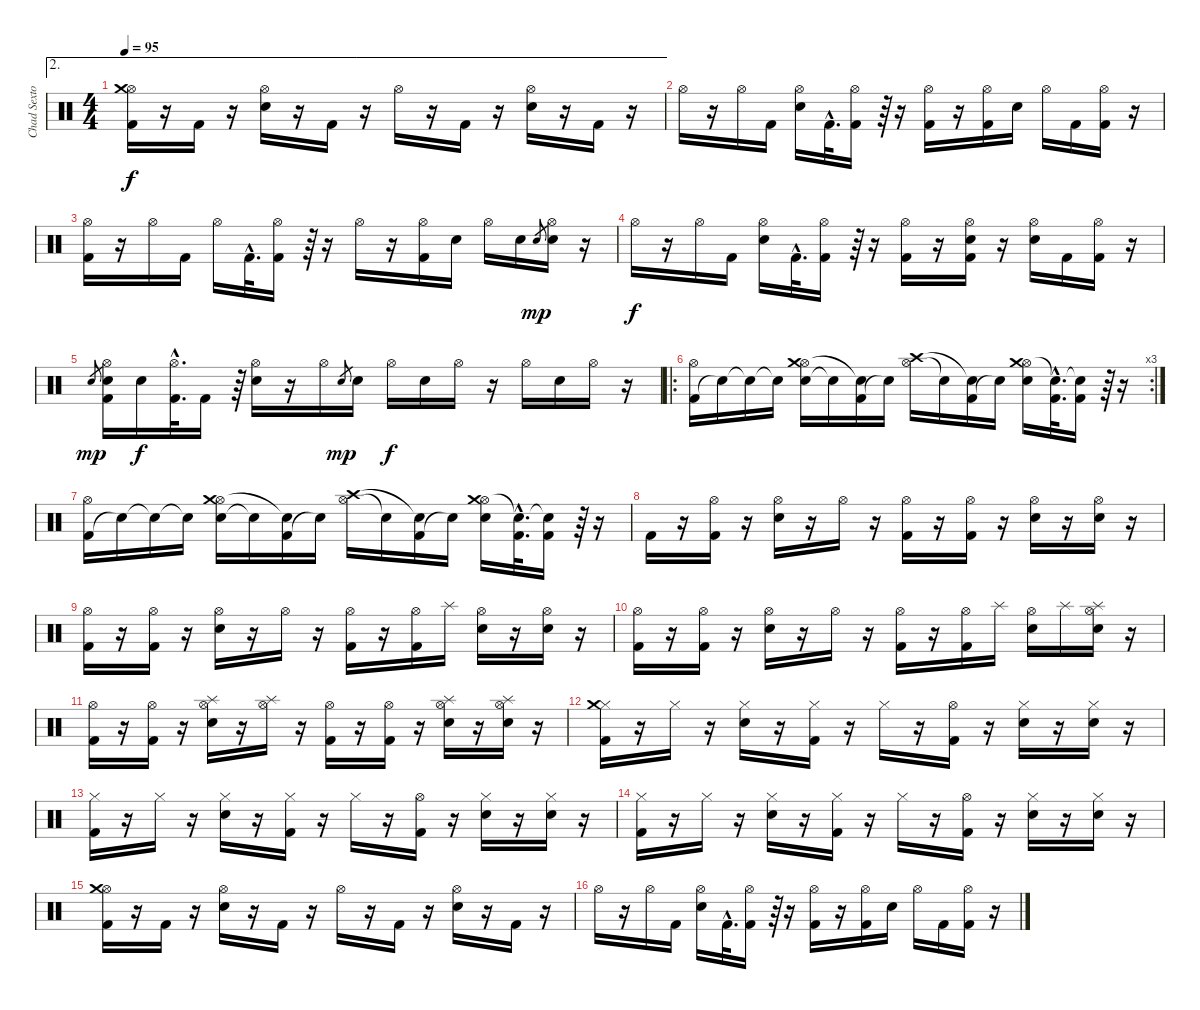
\track ("Chad Sexton" "Chad Sexto") {instrument percussion}
\staff {score}
\articulation defaults
\ae 2
\ts (4 4)
\tempo 95
\clef neutral
\ks c
("Hi-Hat (open)" "Crash medium (hit)" "Kick (hit) 2").16{dy f} r.16 "Kick (hit) 2".16 r.16 ("Hi-Hat (open)" "Electric Snare (hit)").16 r.16 "Kick (hit) 2".16 r.16 "Hi-Hat (open)".16 r.16 "Kick (hit) 2".16 r.16 ("Hi-Hat (open)" "Electric Snare (hit)").16 r.16 "Kick (hit) 2".16 r.16 |
"Hi-Hat (open)".16 r.16 "Hi-Hat (open)".16 "Kick (hit) 2".16 ("Hi-Hat (open)" "Electric Snare (hit)").16 "Kick (hit) 2"{hac}.32{d} ("Hi-Hat (open)" "Kick (hit) 2").16 r.64 r.16 ("Hi-Hat (open)" "Kick (hit) 2").16 r.16 ("Hi-Hat (open)" "Kick (hit) 2").16 "Electric Snare (hit)".16 "Hi-Hat (open)".16 "Kick (hit) 2".16 ("Hi-Hat (open)" "Kick (hit) 2").16 r.16 |
("Hi-Hat (open)" "Kick (hit) 2").16 r.16 "Hi-Hat (open)".16 "Kick (hit) 2".16 "Hi-Hat (open)".16 "Kick (hit) 2"{hac}.32{d} ("Hi-Hat (open)" "Kick (hit) 2").16 r.64 r.16 "Hi-Hat (open)".16 r.16 ("Hi-Hat (open)" "Kick (hit) 2").16 "Electric Snare (hit)".16 "Hi-Hat (open)".16 "Electric Snare (hit)".16 "Electric Snare (hit)".8{gr dy mp} ("Hi-Hat (open)" "Electric Snare (hit)").16 r.16 |
"Hi-Hat (open)".16{dy f} r.16 "Hi-Hat (open)".16 "Kick (hit) 2".16 ("Hi-Hat (open)" "Electric Snare (hit)").16 "Kick (hit) 2"{hac}.32{d} ("Hi-Hat (open)" "Kick (hit) 2").16 r.64 r.16 ("Hi-Hat (open)" "Kick (hit) 2").16 r.16 ("Hi-Hat (open)" "Electric Snare (hit)" "Kick (hit) 2").16 r.16 ("Hi-Hat (open)" "Electric Snare (hit)").16 "Kick (hit) 2".16 ("Hi-Hat (open)" "Kick (hit) 2").16 r.16 |
"Electric Snare (hit)".8{gr dy mp} ("Hi-Hat (open)" "Kick (hit) 2" "Electric Snare (hit)").16 "Electric Snare (hit)".16{dy f} ("Hi-Hat (open)"{hac} "Kick (hit) 2"{hac}).32{d} "Kick (hit) 2".16 r.64 ("Hi-Hat (open)" "Electric Snare (hit)").16 r.16 "Hi-Hat (open)".16 "Electric Snare (hit)".8{gr dy mp} "Electric Snare (hit)".16 "Hi-Hat (open)".16{dy f} "Electric Snare (hit)".16 "Hi-Hat (open)".16 r.16 "Hi-Hat (open)".16 "Electric Snare (hit)".16 "Hi-Hat (open)".16 r.16 |
\ro
\rc 3
("Kick (hit) 2" "Hi-Hat (open)").16 "Snare (hit)"{t}.16 "Snare (hit)"{t}.16 "Snare (hit)"{t}.16 ("Electric Snare (hit)" "Hi-Hat (open)" "Crash medium (hit)").16 "Snare (hit)"{t}.16 ("Kick (hit) 2" "Snare (hit)"{t}).16 "Snare (hit)"{t}.16 ("Hi-Hat (open)" "Crash high (hit)").16 "Snare (hit)"{t}.16 ("Kick (hit) 2" "Snare (hit)"{t}).16 "Snare (hit)"{t}.16 ("Electric Snare (hit)" "Hi-Hat (open)" "Crash medium (hit)").16 ("Kick (hit) 2"{hac} "Snare (hit)"{hac t}).32{d} ("Kick (hit) 2" "Snare (hit)"{t}).16 r.64 r.16 |
("Kick (hit) 2" "Hi-Hat (open)").16 "Snare (hit)"{t}.16 "Snare (hit)"{t}.16 "Snare (hit)"{t}.16 ("Electric Snare (hit)" "Hi-Hat (open)" "Crash medium (hit)").16 "Snare (hit)"{t}.16 ("Kick (hit) 2" "Snare (hit)"{t}).16 "Snare (hit)"{t}.16 ("Hi-Hat (open)" "Crash high (hit)").16 "Snare (hit)"{t}.16 ("Kick (hit) 2" "Snare (hit)"{t}).16 "Snare (hit)"{t}.16 ("Electric Snare (hit)" "Hi-Hat (open)" "Crash medium (hit)").16 ("Kick (hit) 2"{hac} "Snare (hit)"{hac t}).32{d} ("Kick (hit) 2" "Snare (hit)"{t}).16 r.64 r.16 |
"Kick (hit) 2".16 r.16 ("Hi-Hat (open)" "Kick (hit) 2").16 r.16 ("Hi-Hat (open)" "Electric Snare (hit)").16 r.16 "Hi-Hat (open)".16 r.16 ("Hi-Hat (open)" "Kick (hit) 2").16 r.16 ("Hi-Hat (open)" "Kick (hit) 2").16 r.16 ("Hi-Hat (open)" "Electric Snare (hit)").16 r.16 ("Hi-Hat (open)" "Electric Snare (hit)").16 r.16 |
("Kick (hit) 2" "Hi-Hat (open)").16 r.16 ("Hi-Hat (open)" "Kick (hit) 2").16 r.16 ("Hi-Hat (open)" "Electric Snare (hit)").16 r.16 "Hi-Hat (open)".16 r.16 ("Hi-Hat (open)" "Kick (hit) 2").16 r.16 ("Hi-Hat (open)" "Kick (hit) 2").16 "Splash (hit)".16 ("Hi-Hat (open)" "Electric Snare (hit)").16 r.16 ("Hi-Hat (open)" "Electric Snare (hit)").16 r.16 |
("Kick (hit) 2" "Hi-Hat (open)").16 r.16 ("Hi-Hat (open)" "Kick (hit) 2").16 r.16 ("Hi-Hat (open)" "Electric Snare (hit)").16 r.16 "Hi-Hat (open)".16 r.16 ("Hi-Hat (open)" "Kick (hit) 2").16 r.16 ("Hi-Hat (open)" "Kick (hit) 2").16 "Splash (hit)".16 ("Hi-Hat (open)" "Electric Snare (hit)").16 "Splash (hit)".16 ("Hi-Hat (open)" "Electric Snare (hit)" "Splash (hit)").16 r.16 |
("Kick (hit) 2" "Hi-Hat (open)").16 r.16 ("Hi-Hat (open)" "Kick (hit) 2").16 r.16 ("Hi-Hat (open)" "Electric Snare (hit)" "Splash (hit)").16 r.16 ("Hi-Hat (open)" "Splash (hit)").16 r.16 ("Hi-Hat (open)" "Kick (hit) 2").16 r.16 ("Hi-Hat (open)" "Kick (hit) 2").16 r.16 ("Hi-Hat (open)" "Electric Snare (hit)" "Splash (hit)").16 r.16 ("Hi-Hat (open)" "Electric Snare (hit)" "Splash (hit)").16 r.16 |
("Hi-Hat (closed)" "Crash medium (hit)" "Kick (hit) 2").16 r.16 "Hi-Hat (closed)".16 r.16 ("Hi-Hat (closed)" "Electric Snare (hit)").16 r.16 ("Hi-Hat (closed)" "Kick (hit) 2").16 r.16 "Hi-Hat (closed)".16 r.16 ("Hi-Hat (open)" "Kick (hit) 2").16 r.16 ("Hi-Hat (closed)" "Electric Snare (hit)").16 r.16 ("Hi-Hat (closed)" "Electric Snare (hit)").16 r.16 |
("Hi-Hat (closed)" "Kick (hit) 2").16 r.16 "Hi-Hat (closed)".16 r.16 ("Hi-Hat (closed)" "Electric Snare (hit)").16 r.16 ("Hi-Hat (closed)" "Kick (hit) 2").16 r.16 "Hi-Hat (closed)".16 r.16 ("Hi-Hat (open)" "Kick (hit) 2").16 r.16 ("Hi-Hat (closed)" "Electric Snare (hit)").16 r.16 ("Hi-Hat (closed)" "Electric Snare (hit)").16 r.16 |
("Hi-Hat (closed)" "Kick (hit) 2").16 r.16 "Hi-Hat (closed)".16 r.16 ("Hi-Hat (closed)" "Electric Snare (hit)").16 r.16 ("Hi-Hat (closed)" "Kick (hit) 2").16 r.16 "Hi-Hat (closed)".16 r.16 ("Hi-Hat (open)" "Kick (hit) 2").16 r.16 ("Hi-Hat (closed)" "Electric Snare (hit)").16 r.16 ("Hi-Hat (closed)" "Electric Snare (hit)").16 r.16 |
("Hi-Hat (open)" "Crash medium (hit)" "Kick (hit) 2").16 r.16 "Kick (hit) 2".16 r.16 ("Hi-Hat (open)" "Electric Snare (hit)").16 r.16 "Kick (hit) 2".16 r.16 "Hi-Hat (open)".16 r.16 "Kick (hit) 2".16 r.16 ("Hi-Hat (open)" "Electric Snare (hit)").16 r.16 "Kick (hit) 2".16 r.16 |
"Hi-Hat (open)".16 r.16 "Hi-Hat (open)".16 "Kick (hit) 2".16 ("Hi-Hat (open)" "Electric Snare (hit)").16 "Kick (hit) 2"{hac}.32{d} ("Hi-Hat (open)" "Kick (hit) 2").16 r.64 r.16 ("Hi-Hat (open)" "Kick (hit) 2").16 r.16 ("Hi-Hat (open)" "Kick (hit) 2").16 "Electric Snare (hit)".16 "Hi-Hat (open)".16 "Kick (hit) 2".16 ("Hi-Hat (open)" "Kick (hit) 2").16 r.16
